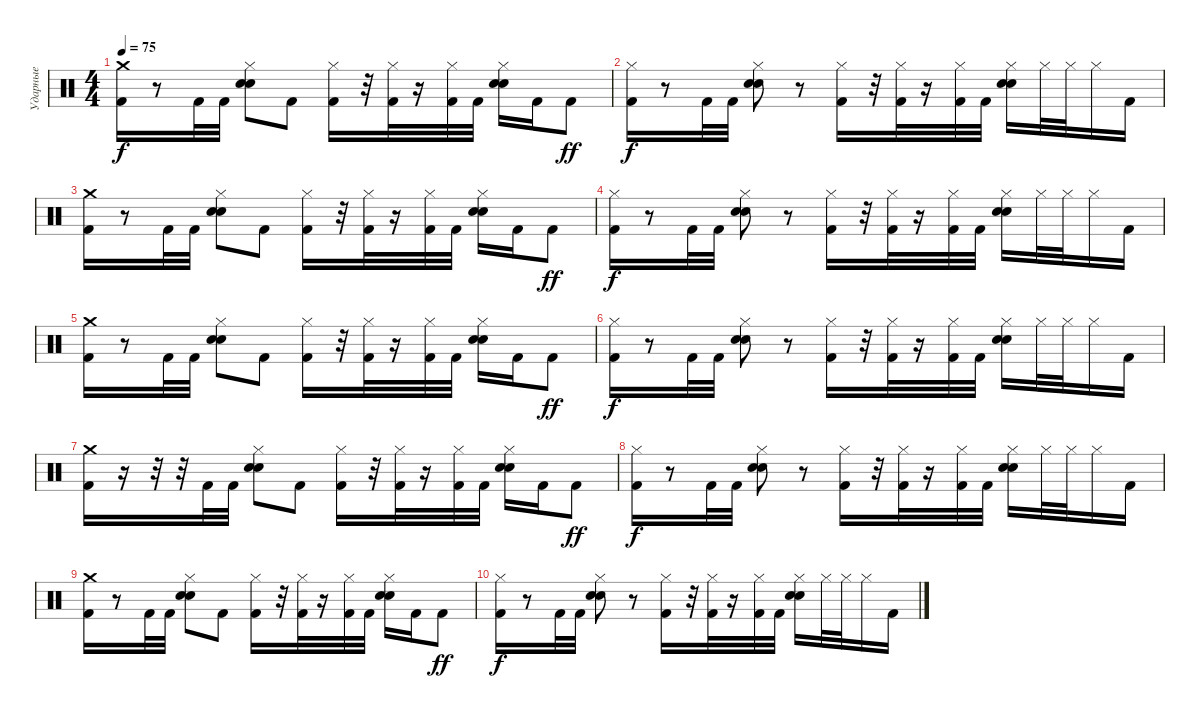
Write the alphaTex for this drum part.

\track ("Ударные" "Ударные") {instrument percussion}
\staff {score}
\articulation defaults
\ts (4 4)
\tempo 75
\clef neutral
\ks c
("Crash medium (hit)" "Kick (hit) 2").16{dy f} r.8 "Kick (hit) 2".32 "Kick (hit) 2".32 ("Hi-Hat (closed)" "Snare (hit) 2" "Hand Clap (hit)").8 "Kick (hit) 2".8 ("Hi-Hat (closed)" "Kick (hit) 2").16 r.32 ("Hi-Hat (closed)" "Kick (hit) 2").32 r.16 ("Hi-Hat (closed)" "Kick (hit) 2").32 "Kick (hit) 2".32 ("Hi-Hat (closed)" "Snare (hit) 2" "Hand Clap (hit)").16 "Kick (hit) 2".16 "Kick (hit) 2".8{dy ff} |
("Hi-Hat (closed)" "Kick (hit) 2").16{dy f} r.8 "Kick (hit) 2".32 "Kick (hit) 2".32 ("Hi-Hat (closed)" "Snare (hit) 2" "Hand Clap (hit)").8 r.8 ("Hi-Hat (closed)" "Kick (hit) 2").16 r.32 ("Hi-Hat (closed)" "Kick (hit) 2").32 r.16 ("Hi-Hat (closed)" "Kick (hit) 2").32 "Kick (hit) 2".32 ("Hi-Hat (closed)" "Snare (hit) 2" "Hand Clap (hit)").16 "Hi-Hat (closed)".32 "Hi-Hat (closed)".32 "Hi-Hat (closed)".16 "Kick (hit) 2".16 |
("Crash medium (hit)" "Kick (hit) 2").16 r.8 "Kick (hit) 2".32 "Kick (hit) 2".32 ("Hi-Hat (closed)" "Snare (hit) 2" "Hand Clap (hit)").8 "Kick (hit) 2".8 ("Hi-Hat (closed)" "Kick (hit) 2").16 r.32 ("Hi-Hat (closed)" "Kick (hit) 2").32 r.16 ("Hi-Hat (closed)" "Kick (hit) 2").32 "Kick (hit) 2".32 ("Hi-Hat (closed)" "Snare (hit) 2" "Hand Clap (hit)").16 "Kick (hit) 2".16 "Kick (hit) 2".8{dy ff} |
("Hi-Hat (closed)" "Kick (hit) 2").16{dy f} r.8 "Kick (hit) 2".32 "Kick (hit) 2".32 ("Hi-Hat (closed)" "Snare (hit) 2" "Hand Clap (hit)").8 r.8 ("Hi-Hat (closed)" "Kick (hit) 2").16 r.32 ("Hi-Hat (closed)" "Kick (hit) 2").32 r.16 ("Hi-Hat (closed)" "Kick (hit) 2").32 "Kick (hit) 2".32 ("Hi-Hat (closed)" "Snare (hit) 2" "Hand Clap (hit)").16 "Hi-Hat (closed)".32 "Hi-Hat (closed)".32 "Hi-Hat (closed)".16 "Kick (hit) 2".16 |
("Crash medium (hit)" "Kick (hit) 2").16 r.8 "Kick (hit) 2".32 "Kick (hit) 2".32 ("Hi-Hat (closed)" "Snare (hit) 2" "Hand Clap (hit)").8 "Kick (hit) 2".8 ("Hi-Hat (closed)" "Kick (hit) 2").16 r.32 ("Hi-Hat (closed)" "Kick (hit) 2").32 r.16 ("Hi-Hat (closed)" "Kick (hit) 2").32 "Kick (hit) 2".32 ("Hi-Hat (closed)" "Snare (hit) 2" "Hand Clap (hit)").16 "Kick (hit) 2".16 "Kick (hit) 2".8{dy ff} |
("Hi-Hat (closed)" "Kick (hit) 2").16{dy f} r.8 "Kick (hit) 2".32 "Kick (hit) 2".32 ("Hi-Hat (closed)" "Snare (hit) 2" "Hand Clap (hit)").8 r.8 ("Hi-Hat (closed)" "Kick (hit) 2").16 r.32 ("Hi-Hat (closed)" "Kick (hit) 2").32 r.16 ("Hi-Hat (closed)" "Kick (hit) 2").32 "Kick (hit) 2".32 ("Hi-Hat (closed)" "Snare (hit) 2" "Hand Clap (hit)").16 "Hi-Hat (closed)".32 "Hi-Hat (closed)".32 "Hi-Hat (closed)".16 "Kick (hit) 2".16 |
("Crash medium (hit)" "Kick (hit) 2").16 r.16 r.32 r.32 "Kick (hit) 2".32 "Kick (hit) 2".32 ("Hi-Hat (closed)" "Snare (hit) 2" "Hand Clap (hit)").8 "Kick (hit) 2".8 ("Hi-Hat (closed)" "Kick (hit) 2").16 r.32 ("Hi-Hat (closed)" "Kick (hit) 2").32 r.16 ("Hi-Hat (closed)" "Kick (hit) 2").32 "Kick (hit) 2".32 ("Hi-Hat (closed)" "Snare (hit) 2" "Hand Clap (hit)").16 "Kick (hit) 2".16 "Kick (hit) 2".8{dy ff} |
("Hi-Hat (closed)" "Kick (hit) 2").16{dy f} r.8 "Kick (hit) 2".32 "Kick (hit) 2".32 ("Hi-Hat (closed)" "Snare (hit) 2" "Hand Clap (hit)").8 r.8 ("Hi-Hat (closed)" "Kick (hit) 2").16 r.32 ("Hi-Hat (closed)" "Kick (hit) 2").32 r.16 ("Hi-Hat (closed)" "Kick (hit) 2").32 "Kick (hit) 2".32 ("Hi-Hat (closed)" "Snare (hit) 2" "Hand Clap (hit)").16 "Hi-Hat (closed)".32 "Hi-Hat (closed)".32 "Hi-Hat (closed)".16 "Kick (hit) 2".16 |
("Crash medium (hit)" "Kick (hit) 2").16 r.8 "Kick (hit) 2".32 "Kick (hit) 2".32 ("Hi-Hat (closed)" "Snare (hit) 2" "Hand Clap (hit)").8 "Kick (hit) 2".8 ("Hi-Hat (closed)" "Kick (hit) 2").16 r.32 ("Hi-Hat (closed)" "Kick (hit) 2").32 r.16 ("Hi-Hat (closed)" "Kick (hit) 2").32 "Kick (hit) 2".32 ("Hi-Hat (closed)" "Snare (hit) 2" "Hand Clap (hit)").16 "Kick (hit) 2".16 "Kick (hit) 2".8{dy ff} |
("Hi-Hat (closed)" "Kick (hit) 2").16{dy f} r.8 "Kick (hit) 2".32 "Kick (hit) 2".32 ("Hi-Hat (closed)" "Snare (hit) 2" "Hand Clap (hit)").8 r.8 ("Hi-Hat (closed)" "Kick (hit) 2").16 r.32 ("Hi-Hat (closed)" "Kick (hit) 2").32 r.16 ("Hi-Hat (closed)" "Kick (hit) 2").32 "Kick (hit) 2".32 ("Hi-Hat (closed)" "Snare (hit) 2" "Hand Clap (hit)").16 "Hi-Hat (closed)".32 "Hi-Hat (closed)".32 "Hi-Hat (closed)".16 "Kick (hit) 2".16
